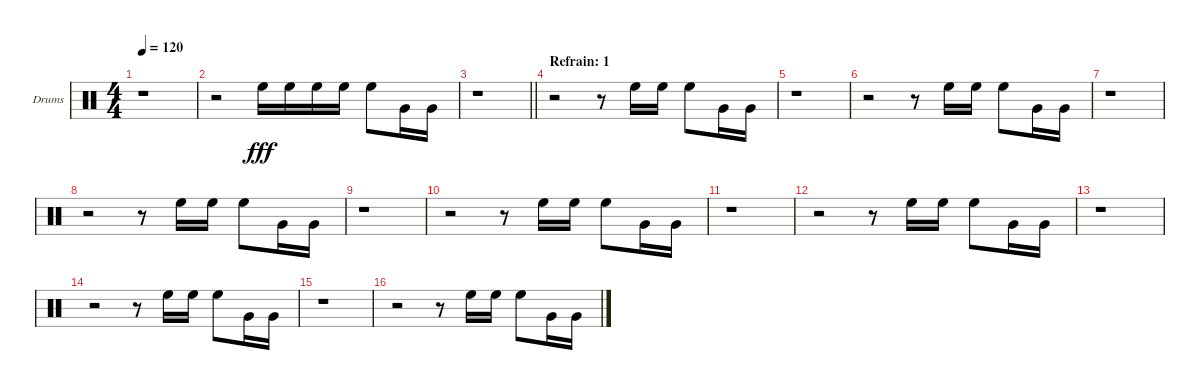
\bracketExtendMode groupsimilarinstruments
\firstSystemTrackNameOrientation horizontal
\otherSystemsTrackNameOrientation horizontal
\track ("Drumkit" "Drums") {instrument percussion}
\staff {score}
\articulation defaults
\ts (4 4)
\tempo 120
\clef neutral
\ks c
r.1{dy fff} |
r.2 "High Floor Tom (hit)".16 "High Floor Tom (hit)".16 "High Floor Tom (hit)".16 "High Floor Tom (hit)".16 "High Floor Tom (hit)".8 "Very Low Tom (hit)".16 "Very Low Tom (hit)".16 |
\barLineRight lightlight
r.1 |
\section ("" "Refrain: 1")
r.2 r.8 "High Floor Tom (hit)".16 "High Floor Tom (hit)".16 "High Floor Tom (hit)".8 "Very Low Tom (hit)".16 "Very Low Tom (hit)".16 |
r.1 |
r.2 r.8 "High Floor Tom (hit)".16 "High Floor Tom (hit)".16 "High Floor Tom (hit)".8 "Very Low Tom (hit)".16 "Very Low Tom (hit)".16 |
r.1 |
r.2 r.8 "High Floor Tom (hit)".16 "High Floor Tom (hit)".16 "High Floor Tom (hit)".8 "Very Low Tom (hit)".16 "Very Low Tom (hit)".16 |
r.1 |
r.2 r.8 "High Floor Tom (hit)".16 "High Floor Tom (hit)".16 "High Floor Tom (hit)".8 "Very Low Tom (hit)".16 "Very Low Tom (hit)".16 |
r.1 |
r.2 r.8 "High Floor Tom (hit)".16 "High Floor Tom (hit)".16 "High Floor Tom (hit)".8 "Very Low Tom (hit)".16 "Very Low Tom (hit)".16 |
r.1 |
r.2 r.8 "High Floor Tom (hit)".16 "High Floor Tom (hit)".16 "High Floor Tom (hit)".8 "Very Low Tom (hit)".16 "Very Low Tom (hit)".16 |
r.1 |
r.2 r.8 "High Floor Tom (hit)".16 "High Floor Tom (hit)".16 "High Floor Tom (hit)".8 "Very Low Tom (hit)".16 "Very Low Tom (hit)".16
